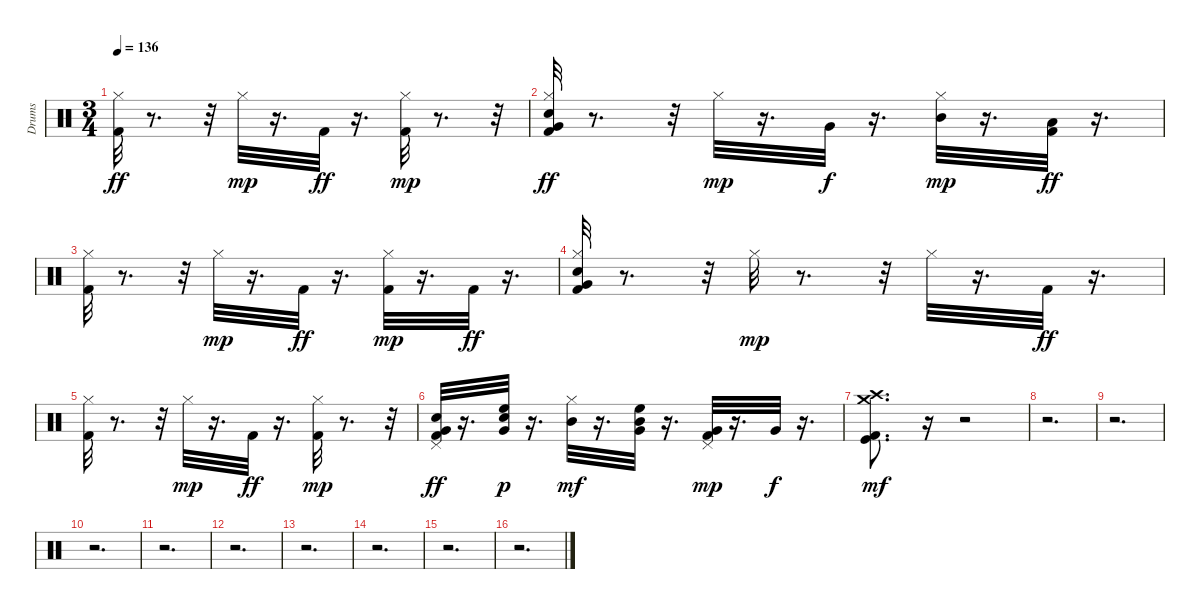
\track ("Drums  " "Drums  ") {instrument percussion}
\staff {score}
\articulation defaults
\ts (3 4)
\tempo 136
\clef neutral
\ks c
("Kick (hit) 2" "Hi-Hat (closed)").32{dy ff} r.8{d} r.32 "Hi-Hat (closed)".32{dy mp} r.16{d} "Kick (hit) 2".32{dy ff} r.16{d} ("Kick (hit) 2" "Hi-Hat (closed)").32{dy mp} r.8{d} r.32 |
("Kick (hit) 2" "Snare (hit) 2" "Very Low Tom (hit)" "Hi-Hat (closed)").32{dy ff} r.8{d} r.32 "Hi-Hat (closed)".32{dy mp} r.16{d} "Very Low Tom (hit)".32{dy f} r.16{d} ("Hi-Hat (closed)" "Mid Tom (hit)").32{dy mp} r.16{d} ("Kick (hit) 2" "Low Floor Tom (hit)").32{dy ff} r.16{d} |
("Kick (hit) 2" "Hi-Hat (closed)").32 r.8{d} r.32 "Hi-Hat (closed)".32{dy mp} r.16{d} "Kick (hit) 2".32{dy ff} r.16{d} ("Kick (hit) 2" "Hi-Hat (closed)").32{dy mp} r.16{d} "Kick (hit) 2".32{dy ff} r.16{d} |
("Kick (hit) 2" "Snare (hit) 2" "Hi-Hat (closed)" "Very Low Tom (hit)").32 r.8{d} r.32 "Hi-Hat (closed)".32{dy mp} r.8{d} r.32 "Hi-Hat (closed)".32 r.16{d} "Kick (hit) 2".32{dy ff} r.16{d} |
("Kick (hit) 2" "Hi-Hat (closed)").32 r.8{d} r.32 "Hi-Hat (closed)".32{dy mp} r.16{d} "Kick (hit) 2".32{dy ff} r.16{d} ("Kick (hit) 2" "Hi-Hat (closed)").32{dy mp} r.8{d} r.32 |
("Kick (hit) 2" "Snare (hit) 2" "Very Low Tom (hit)" "Pedal Hi-Hat (hit)").32{dy ff} r.16{d} ("High Floor Tom (hit)" "Very Low Tom (hit)" "Snare (hit) 2").32{dy p} r.16{d} ("Hi-Hat (closed)" "Mid Tom (hit)").32{dy mf} r.16{d} ("Very Low Tom (hit)" "High Floor Tom (hit)" "Mid Tom (hit)").32 r.16{d} ("Kick (hit) 2" "Very Low Tom (hit)" "Pedal Hi-Hat (hit)").32{dy mp} r.16{d} "Very Low Tom (hit)".32{dy f} r.16{d} |
("Kick (hit) 2" "Kick (hit)" "Crash high (hit)" "Crash medium (hit)").8{d dy mf} r.16 r.2 |
r.2{d} |
r.2{d} |
r.2{d} |
r.2{d} |
r.2{d} |
r.2{d} |
r.2{d} |
r.2{d} |
r.2{d}
